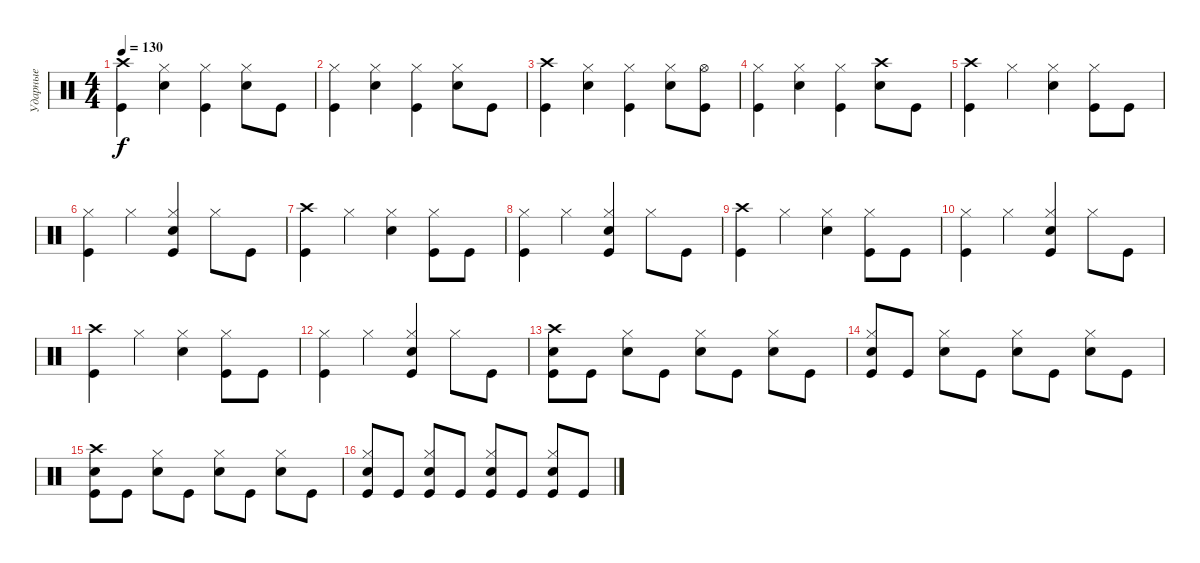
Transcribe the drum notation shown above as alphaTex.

\track ("Ударные" "Ударные") {instrument percussion}
\staff {score}
\articulation defaults
\ts (4 4)
\tempo 130
\clef neutral
\ks c
("Crash high (hit)" "Kick (hit)").4{dy f} ("Hi-Hat (closed)" "Electric Snare (hit)").4 ("Hi-Hat (closed)" "Kick (hit)").4 ("Hi-Hat (closed)" "Electric Snare (hit)").8 "Kick (hit)".8 |
("Hi-Hat (closed)" "Kick (hit)").4 ("Hi-Hat (closed)" "Electric Snare (hit)").4 ("Hi-Hat (closed)" "Kick (hit)").4 ("Hi-Hat (closed)" "Electric Snare (hit)").8 "Kick (hit)".8 |
("Crash high (hit)" "Kick (hit)").4 ("Hi-Hat (closed)" "Electric Snare (hit)").4 ("Hi-Hat (closed)" "Kick (hit)").4 ("Hi-Hat (closed)" "Electric Snare (hit)").8 ("Hi-Hat (open)" "Kick (hit)").8 |
("Hi-Hat (closed)" "Kick (hit)").4 ("Hi-Hat (closed)" "Electric Snare (hit)").4 ("Hi-Hat (closed)" "Kick (hit)").4 ("Crash high (hit)" "Electric Snare (hit)").8 "Kick (hit)".8 |
("Crash high (hit)" "Kick (hit)").4 "Hi-Hat (closed)".4 ("Hi-Hat (closed)" "Electric Snare (hit)").4 ("Hi-Hat (closed)" "Kick (hit)").8 "Kick (hit)".8 |
("Hi-Hat (closed)" "Kick (hit)").4 "Hi-Hat (closed)".4 ("Hi-Hat (closed)" "Electric Snare (hit)" "Kick (hit)").4 "Hi-Hat (closed)".8 "Kick (hit)".8 |
("Crash high (hit)" "Kick (hit)").4 "Hi-Hat (closed)".4 ("Hi-Hat (closed)" "Electric Snare (hit)").4 ("Hi-Hat (closed)" "Kick (hit)").8 "Kick (hit)".8 |
("Hi-Hat (closed)" "Kick (hit)").4 "Hi-Hat (closed)".4 ("Hi-Hat (closed)" "Electric Snare (hit)" "Kick (hit)").4 "Hi-Hat (closed)".8 "Kick (hit)".8 |
("Crash high (hit)" "Kick (hit)").4 "Hi-Hat (closed)".4 ("Hi-Hat (closed)" "Electric Snare (hit)").4 ("Hi-Hat (closed)" "Kick (hit)").8 "Kick (hit)".8 |
("Hi-Hat (closed)" "Kick (hit)").4 "Hi-Hat (closed)".4 ("Hi-Hat (closed)" "Electric Snare (hit)" "Kick (hit)").4 "Hi-Hat (closed)".8 "Kick (hit)".8 |
("Crash high (hit)" "Kick (hit)").4 "Hi-Hat (closed)".4 ("Hi-Hat (closed)" "Electric Snare (hit)").4 ("Hi-Hat (closed)" "Kick (hit)").8 "Kick (hit)".8 |
("Hi-Hat (closed)" "Kick (hit)").4 "Hi-Hat (closed)".4 ("Hi-Hat (closed)" "Electric Snare (hit)" "Kick (hit)").4 "Hi-Hat (closed)".8 "Kick (hit)".8 |
("Crash high (hit)" "Electric Snare (hit)" "Kick (hit)").8 "Kick (hit)".8 ("Hi-Hat (closed)" "Electric Snare (hit)").8 "Kick (hit)".8 ("Hi-Hat (closed)" "Electric Snare (hit)").8 "Kick (hit)".8 ("Hi-Hat (closed)" "Electric Snare (hit)").8 "Kick (hit)".8 |
("Hi-Hat (closed)" "Electric Snare (hit)" "Kick (hit)").8 "Kick (hit)".8 ("Hi-Hat (closed)" "Electric Snare (hit)").8 "Kick (hit)".8 ("Hi-Hat (closed)" "Electric Snare (hit)").8 "Kick (hit)".8 ("Hi-Hat (closed)" "Electric Snare (hit)").8 "Kick (hit)".8 |
("Crash high (hit)" "Electric Snare (hit)" "Kick (hit)").8 "Kick (hit)".8 ("Hi-Hat (closed)" "Electric Snare (hit)").8 "Kick (hit)".8 ("Hi-Hat (closed)" "Electric Snare (hit)").8 "Kick (hit)".8 ("Hi-Hat (closed)" "Electric Snare (hit)").8 "Kick (hit)".8 |
("Hi-Hat (closed)" "Electric Snare (hit)" "Kick (hit)").8 "Kick (hit)".8 ("Hi-Hat (closed)" "Electric Snare (hit)" "Kick (hit)").8 "Kick (hit)".8 ("Hi-Hat (closed)" "Electric Snare (hit)" "Kick (hit)").8 "Kick (hit)".8 ("Hi-Hat (closed)" "Electric Snare (hit)" "Kick (hit)").8 "Kick (hit)".8
